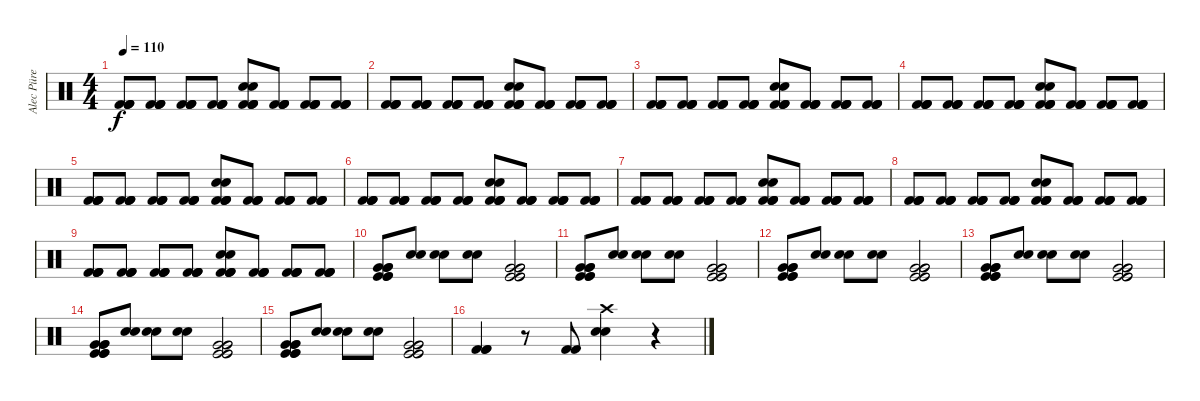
\track ("Alec Püre" "Alec Püre") {instrument percussion}
\staff {score}
\articulation defaults
\ts (4 4)
\tempo 110
\clef neutral
\ks c
("Kick (hit) 2" "Kick (hit) 2" "Kick (hit) 2" "Kick (hit) 2").8{dy f} ("Kick (hit) 2" "Kick (hit) 2" "Kick (hit) 2" "Kick (hit) 2").8 ("Kick (hit) 2" "Kick (hit) 2" "Kick (hit) 2" "Kick (hit) 2").8 ("Kick (hit) 2" "Kick (hit) 2" "Kick (hit) 2" "Kick (hit) 2").8 ("Snare (hit) 2" "Snare (hit) 2" "Kick (hit) 2" "Kick (hit) 2" "Kick (hit) 2" "Kick (hit) 2").8 ("Kick (hit) 2" "Kick (hit) 2" "Kick (hit) 2" "Kick (hit) 2").8 ("Kick (hit) 2" "Kick (hit) 2" "Kick (hit) 2" "Kick (hit) 2").8 ("Kick (hit) 2" "Kick (hit) 2" "Kick (hit) 2" "Kick (hit) 2").8 |
("Kick (hit) 2" "Kick (hit) 2" "Kick (hit) 2" "Kick (hit) 2").8 ("Kick (hit) 2" "Kick (hit) 2" "Kick (hit) 2" "Kick (hit) 2").8 ("Kick (hit) 2" "Kick (hit) 2" "Kick (hit) 2" "Kick (hit) 2").8 ("Kick (hit) 2" "Kick (hit) 2" "Kick (hit) 2" "Kick (hit) 2").8 ("Snare (hit) 2" "Snare (hit) 2" "Kick (hit) 2" "Kick (hit) 2" "Kick (hit) 2" "Kick (hit) 2").8 ("Kick (hit) 2" "Kick (hit) 2" "Kick (hit) 2" "Kick (hit) 2").8 ("Kick (hit) 2" "Kick (hit) 2" "Kick (hit) 2" "Kick (hit) 2").8 ("Kick (hit) 2" "Kick (hit) 2" "Kick (hit) 2" "Kick (hit) 2").8 |
("Kick (hit) 2" "Kick (hit) 2" "Kick (hit) 2" "Kick (hit) 2").8 ("Kick (hit) 2" "Kick (hit) 2" "Kick (hit) 2" "Kick (hit) 2").8 ("Kick (hit) 2" "Kick (hit) 2" "Kick (hit) 2" "Kick (hit) 2").8 ("Kick (hit) 2" "Kick (hit) 2" "Kick (hit) 2" "Kick (hit) 2").8 ("Snare (hit) 2" "Snare (hit) 2" "Kick (hit) 2" "Kick (hit) 2" "Kick (hit) 2" "Kick (hit) 2").8 ("Kick (hit) 2" "Kick (hit) 2" "Kick (hit) 2" "Kick (hit) 2").8 ("Kick (hit) 2" "Kick (hit) 2" "Kick (hit) 2" "Kick (hit) 2").8 ("Kick (hit) 2" "Kick (hit) 2" "Kick (hit) 2" "Kick (hit) 2").8 |
("Kick (hit) 2" "Kick (hit) 2" "Kick (hit) 2" "Kick (hit) 2").8 ("Kick (hit) 2" "Kick (hit) 2" "Kick (hit) 2" "Kick (hit) 2").8 ("Kick (hit) 2" "Kick (hit) 2" "Kick (hit) 2" "Kick (hit) 2").8 ("Kick (hit) 2" "Kick (hit) 2" "Kick (hit) 2" "Kick (hit) 2").8 ("Snare (hit) 2" "Snare (hit) 2" "Kick (hit) 2" "Kick (hit) 2" "Kick (hit) 2" "Kick (hit) 2").8 ("Kick (hit) 2" "Kick (hit) 2" "Kick (hit) 2" "Kick (hit) 2").8 ("Kick (hit) 2" "Kick (hit) 2" "Kick (hit) 2" "Kick (hit) 2").8 ("Kick (hit) 2" "Kick (hit) 2" "Kick (hit) 2" "Kick (hit) 2").8 |
("Kick (hit) 2" "Kick (hit) 2" "Kick (hit) 2" "Kick (hit) 2").8 ("Kick (hit) 2" "Kick (hit) 2" "Kick (hit) 2" "Kick (hit) 2").8 ("Kick (hit) 2" "Kick (hit) 2" "Kick (hit) 2" "Kick (hit) 2").8 ("Kick (hit) 2" "Kick (hit) 2" "Kick (hit) 2" "Kick (hit) 2").8 ("Snare (hit) 2" "Snare (hit) 2" "Kick (hit) 2" "Kick (hit) 2" "Kick (hit) 2" "Kick (hit) 2").8 ("Kick (hit) 2" "Kick (hit) 2" "Kick (hit) 2" "Kick (hit) 2").8 ("Kick (hit) 2" "Kick (hit) 2" "Kick (hit) 2" "Kick (hit) 2").8 ("Kick (hit) 2" "Kick (hit) 2" "Kick (hit) 2" "Kick (hit) 2").8 |
("Kick (hit) 2" "Kick (hit) 2" "Kick (hit) 2" "Kick (hit) 2").8 ("Kick (hit) 2" "Kick (hit) 2" "Kick (hit) 2" "Kick (hit) 2").8 ("Kick (hit) 2" "Kick (hit) 2" "Kick (hit) 2" "Kick (hit) 2").8 ("Kick (hit) 2" "Kick (hit) 2" "Kick (hit) 2" "Kick (hit) 2").8 ("Snare (hit) 2" "Snare (hit) 2" "Kick (hit) 2" "Kick (hit) 2" "Kick (hit) 2" "Kick (hit) 2").8 ("Kick (hit) 2" "Kick (hit) 2" "Kick (hit) 2" "Kick (hit) 2").8 ("Kick (hit) 2" "Kick (hit) 2" "Kick (hit) 2" "Kick (hit) 2").8 ("Kick (hit) 2" "Kick (hit) 2" "Kick (hit) 2" "Kick (hit) 2").8 |
("Kick (hit) 2" "Kick (hit) 2" "Kick (hit) 2" "Kick (hit) 2").8 ("Kick (hit) 2" "Kick (hit) 2" "Kick (hit) 2" "Kick (hit) 2").8 ("Kick (hit) 2" "Kick (hit) 2" "Kick (hit) 2" "Kick (hit) 2").8 ("Kick (hit) 2" "Kick (hit) 2" "Kick (hit) 2" "Kick (hit) 2").8 ("Snare (hit) 2" "Snare (hit) 2" "Kick (hit) 2" "Kick (hit) 2" "Kick (hit) 2" "Kick (hit) 2").8 ("Kick (hit) 2" "Kick (hit) 2" "Kick (hit) 2" "Kick (hit) 2").8 ("Kick (hit) 2" "Kick (hit) 2" "Kick (hit) 2" "Kick (hit) 2").8 ("Kick (hit) 2" "Kick (hit) 2" "Kick (hit) 2" "Kick (hit) 2").8 |
("Kick (hit) 2" "Kick (hit) 2" "Kick (hit) 2" "Kick (hit) 2").8 ("Kick (hit) 2" "Kick (hit) 2" "Kick (hit) 2" "Kick (hit) 2").8 ("Kick (hit) 2" "Kick (hit) 2" "Kick (hit) 2" "Kick (hit) 2").8 ("Kick (hit) 2" "Kick (hit) 2" "Kick (hit) 2" "Kick (hit) 2").8 ("Snare (hit) 2" "Snare (hit) 2" "Kick (hit) 2" "Kick (hit) 2" "Kick (hit) 2" "Kick (hit) 2").8 ("Kick (hit) 2" "Kick (hit) 2" "Kick (hit) 2" "Kick (hit) 2").8 ("Kick (hit) 2" "Kick (hit) 2" "Kick (hit) 2" "Kick (hit) 2").8 ("Kick (hit) 2" "Kick (hit) 2" "Kick (hit) 2" "Kick (hit) 2").8 |
("Kick (hit) 2" "Kick (hit) 2" "Kick (hit) 2" "Kick (hit) 2").8 ("Kick (hit) 2" "Kick (hit) 2" "Kick (hit) 2" "Kick (hit) 2").8 ("Kick (hit) 2" "Kick (hit) 2" "Kick (hit) 2" "Kick (hit) 2").8 ("Kick (hit) 2" "Kick (hit) 2" "Kick (hit) 2" "Kick (hit) 2").8 ("Snare (hit) 2" "Snare (hit) 2" "Kick (hit) 2" "Kick (hit) 2" "Kick (hit) 2" "Kick (hit) 2").8 ("Kick (hit) 2" "Kick (hit) 2" "Kick (hit) 2" "Kick (hit) 2").8 ("Kick (hit) 2" "Kick (hit) 2" "Kick (hit) 2" "Kick (hit) 2").8 ("Kick (hit) 2" "Kick (hit) 2" "Kick (hit) 2" "Kick (hit) 2").8 |
("Very Low Tom (hit)" "Very Low Tom (hit)" "Very Low Tom (hit)" "Kick (hit)" "Kick (hit)" "Kick (hit)").8 ("Electric Snare (hit)" "Electric Snare (hit)").8 ("Electric Snare (hit)" "Electric Snare (hit)").8 ("Electric Snare (hit)" "Electric Snare (hit)").8 ("Very Low Tom (hit)" "Very Low Tom (hit)" "Very Low Tom (hit)" "Kick (hit)" "Kick (hit)" "Kick (hit)").2 |
("Very Low Tom (hit)" "Very Low Tom (hit)" "Very Low Tom (hit)" "Kick (hit)" "Kick (hit)" "Kick (hit)").8 ("Electric Snare (hit)" "Electric Snare (hit)").8 ("Electric Snare (hit)" "Electric Snare (hit)").8 ("Electric Snare (hit)" "Electric Snare (hit)").8 ("Very Low Tom (hit)" "Very Low Tom (hit)" "Very Low Tom (hit)" "Kick (hit)" "Kick (hit)" "Kick (hit)").2 |
("Very Low Tom (hit)" "Very Low Tom (hit)" "Very Low Tom (hit)" "Kick (hit)" "Kick (hit)" "Kick (hit)").8 ("Electric Snare (hit)" "Electric Snare (hit)").8 ("Electric Snare (hit)" "Electric Snare (hit)").8 ("Electric Snare (hit)" "Electric Snare (hit)").8 ("Very Low Tom (hit)" "Very Low Tom (hit)" "Very Low Tom (hit)" "Kick (hit)" "Kick (hit)" "Kick (hit)").2 |
("Very Low Tom (hit)" "Very Low Tom (hit)" "Very Low Tom (hit)" "Kick (hit)" "Kick (hit)" "Kick (hit)").8 ("Electric Snare (hit)" "Electric Snare (hit)").8 ("Electric Snare (hit)" "Electric Snare (hit)").8 ("Electric Snare (hit)" "Electric Snare (hit)").8 ("Very Low Tom (hit)" "Very Low Tom (hit)" "Very Low Tom (hit)" "Kick (hit)" "Kick (hit)" "Kick (hit)").2 |
("Very Low Tom (hit)" "Very Low Tom (hit)" "Very Low Tom (hit)" "Kick (hit)" "Kick (hit)" "Kick (hit)").8 ("Electric Snare (hit)" "Electric Snare (hit)").8 ("Electric Snare (hit)" "Electric Snare (hit)").8 ("Electric Snare (hit)" "Electric Snare (hit)").8 ("Very Low Tom (hit)" "Very Low Tom (hit)" "Very Low Tom (hit)" "Kick (hit)" "Kick (hit)" "Kick (hit)").2 |
("Very Low Tom (hit)" "Very Low Tom (hit)" "Very Low Tom (hit)" "Kick (hit)" "Kick (hit)" "Kick (hit)").8 ("Electric Snare (hit)" "Electric Snare (hit)").8 ("Electric Snare (hit)" "Electric Snare (hit)").8 ("Electric Snare (hit)" "Electric Snare (hit)").8 ("Very Low Tom (hit)" "Very Low Tom (hit)" "Very Low Tom (hit)" "Kick (hit)" "Kick (hit)" "Kick (hit)").2 |
("Kick (hit) 2" "Kick (hit) 2" "Kick (hit) 2").4 r.8 ("Kick (hit) 2" "Kick (hit) 2").8 ("Crash high (hit)" "Snare (hit) 2" "Snare (hit) 2").4 r.4
